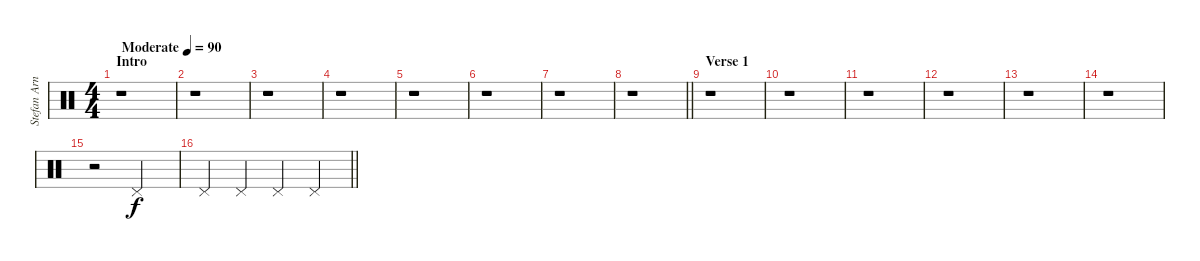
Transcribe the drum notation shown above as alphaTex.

\track ("Stefan Arnold" "Stefan Arn") {instrument percussion}
\staff {score}
\articulation defaults
\ts (4 4)
\section ("" "Intro")
\tempo (90 "Moderate")
\clef neutral
\ks c
r.1{dy f} |
r.1 |
r.1 |
r.1 |
r.1 |
r.1 |
r.1 |
\barLineRight lightlight
r.1 |
\section ("" "Verse 1")
r.1 |
r.1 |
r.1 |
r.1 |
r.1 |
r.1 |
r.2 "Pedal Hi-Hat (hit)".2 |
\barLineRight lightlight "Pedal Hi-Hat (hit)".4 "Pedal Hi-Hat (hit)".4 "Pedal Hi-Hat (hit)".4 "Pedal Hi-Hat (hit)".4
